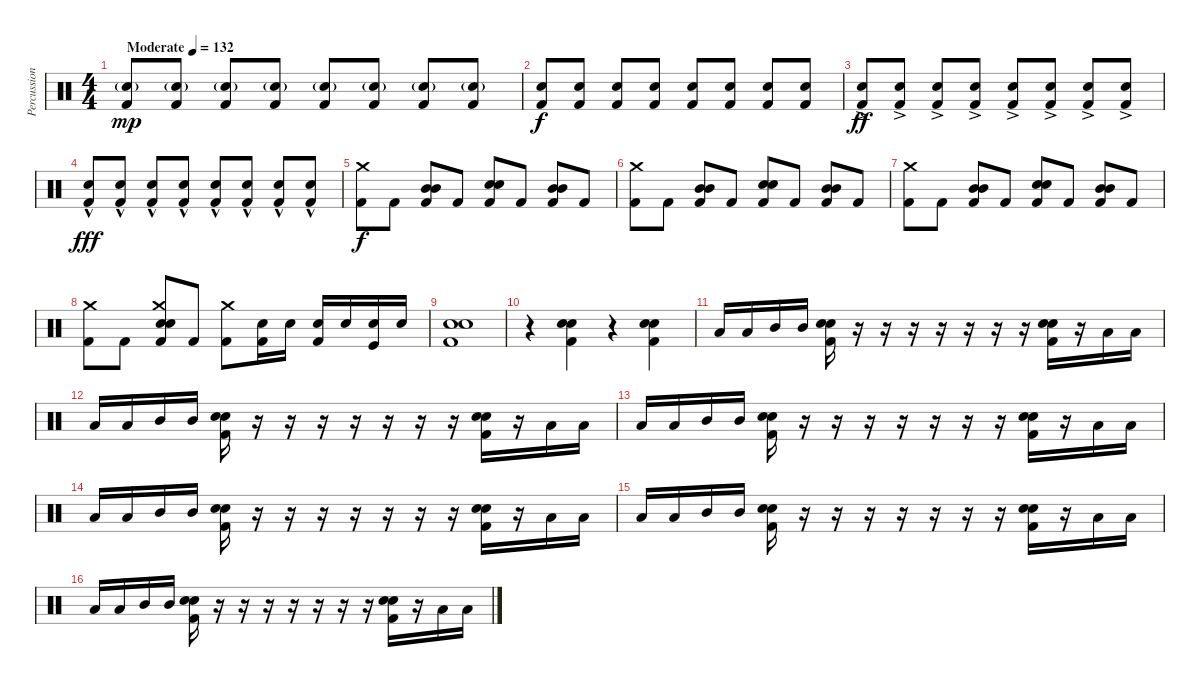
\track ("Percussion" "Percussion") {instrument percussion}
\staff {score}
\articulation defaults
\ts (4 4)
\tempo (132 "Moderate")
\clef neutral
\ks c
("Snare (hit) 2"{g} "Kick (hit) 2").8{dy mp} ("Snare (hit) 2"{g} "Kick (hit) 2").8 ("Snare (hit) 2"{g} "Kick (hit) 2").8 ("Snare (hit) 2"{g} "Kick (hit) 2").8 ("Snare (hit) 2"{g} "Kick (hit) 2").8 ("Snare (hit) 2"{g} "Kick (hit) 2").8 ("Snare (hit) 2"{g} "Kick (hit) 2").8 ("Snare (hit) 2"{g} "Kick (hit) 2").8 |
("Snare (hit) 2" "Kick (hit) 2").8{dy f} ("Snare (hit) 2" "Kick (hit) 2").8 ("Snare (hit) 2" "Kick (hit) 2").8 ("Snare (hit) 2" "Kick (hit) 2").8 ("Snare (hit) 2" "Kick (hit) 2").8 ("Snare (hit) 2" "Kick (hit) 2").8 ("Snare (hit) 2" "Kick (hit) 2").8 ("Snare (hit) 2" "Kick (hit) 2").8 |
("Snare (hit) 2"{ac} "Kick (hit) 2").8{dy ff} ("Snare (hit) 2"{ac} "Kick (hit) 2").8 ("Snare (hit) 2"{ac} "Kick (hit) 2").8 ("Snare (hit) 2"{ac} "Kick (hit) 2").8 ("Snare (hit) 2"{ac} "Kick (hit) 2").8 ("Snare (hit) 2"{ac} "Kick (hit) 2").8 ("Snare (hit) 2"{ac} "Kick (hit) 2").8 ("Snare (hit) 2"{ac} "Kick (hit) 2").8 |
("Snare (hit) 2"{hac} "Kick (hit) 2").8{dy fff} ("Snare (hit) 2"{hac} "Kick (hit) 2").8 ("Snare (hit) 2"{hac} "Kick (hit) 2").8 ("Snare (hit) 2"{hac} "Kick (hit) 2").8 ("Snare (hit) 2"{hac} "Kick (hit) 2").8 ("Snare (hit) 2"{hac} "Kick (hit) 2").8 ("Snare (hit) 2"{hac} "Kick (hit) 2").8 ("Snare (hit) 2"{hac} "Kick (hit) 2").8 |
("Crash medium (hit)" "Kick (hit) 2").8{dy f} "Kick (hit) 2".8 ("Mid Tom (hit)" "Mid Tom (hit)" "Kick (hit) 2").8 "Kick (hit) 2".8 ("Snare (hit) 2" "Snare (hit) 2" "Kick (hit) 2").8 "Kick (hit) 2".8 ("Mid Tom (hit)" "Mid Tom (hit)" "Kick (hit) 2").8 "Kick (hit) 2".8 |
("Crash medium (hit)" "Kick (hit) 2").8 "Kick (hit) 2".8 ("Mid Tom (hit)" "Mid Tom (hit)" "Kick (hit) 2").8 "Kick (hit) 2".8 ("Snare (hit) 2" "Snare (hit) 2" "Kick (hit) 2").8 "Kick (hit) 2".8 ("Mid Tom (hit)" "Mid Tom (hit)" "Kick (hit) 2").8 "Kick (hit) 2".8 |
("Crash medium (hit)" "Kick (hit) 2").8 "Kick (hit) 2".8 ("Mid Tom (hit)" "Mid Tom (hit)" "Kick (hit) 2").8 "Kick (hit) 2".8 ("Snare (hit) 2" "Snare (hit) 2" "Kick (hit) 2").8 "Kick (hit) 2".8 ("Mid Tom (hit)" "Mid Tom (hit)" "Kick (hit) 2").8 "Kick (hit) 2".8 |
("Crash medium (hit)" "Kick (hit) 2").8 "Kick (hit) 2".8 ("Crash medium (hit)" "Electric Snare (hit)" "Electric Snare (hit)" "Kick (hit) 2").8 "Kick (hit) 2".8 ("Crash medium (hit)" "Kick (hit) 2").8 ("Snare (hit) 2" "Kick (hit) 2").16 "Snare (hit) 2".16 ("Snare (hit) 2" "Kick (hit) 2").16 "Snare (hit) 2".16 ("Snare (hit) 2" "Kick (hit)").16 "Snare (hit) 2".16 |
("Snare (hit) 2" "Snare (hit) 2" "Kick (hit) 2").1 |
r.4 ("Electric Snare (hit)" "Snare (hit) 2" "Kick (hit) 2").4 r.4 ("Electric Snare (hit)" "Snare (hit) 2" "Kick (hit) 2").4 |
"Low Tom (hit)".16 "Low Tom (hit)".16 "Mid Tom (hit)".16 "Mid Tom (hit)".16 ("Electric Snare (hit)" "Snare (hit) 2" "Kick (hit) 2").16 r.16 r.16 r.16 r.16 r.16 r.16 r.16 ("Electric Snare (hit)" "Snare (hit) 2" "Kick (hit) 2").16 r.16 "Low Tom (hit)".16 "Low Tom (hit)".16 |
"Low Tom (hit)".16 "Low Tom (hit)".16 "Mid Tom (hit)".16 "Mid Tom (hit)".16 ("Electric Snare (hit)" "Snare (hit) 2" "Kick (hit) 2").16 r.16 r.16 r.16 r.16 r.16 r.16 r.16 ("Electric Snare (hit)" "Snare (hit) 2" "Kick (hit) 2").16 r.16 "Low Tom (hit)".16 "Low Tom (hit)".16 |
"Low Tom (hit)".16 "Low Tom (hit)".16 "Mid Tom (hit)".16 "Mid Tom (hit)".16 ("Electric Snare (hit)" "Snare (hit) 2" "Kick (hit) 2").16 r.16 r.16 r.16 r.16 r.16 r.16 r.16 ("Electric Snare (hit)" "Snare (hit) 2" "Kick (hit) 2").16 r.16 "Low Tom (hit)".16 "Low Tom (hit)".16 |
"Low Tom (hit)".16 "Low Tom (hit)".16 "Mid Tom (hit)".16 "Mid Tom (hit)".16 ("Electric Snare (hit)" "Snare (hit) 2" "Kick (hit) 2").16 r.16 r.16 r.16 r.16 r.16 r.16 r.16 ("Electric Snare (hit)" "Snare (hit) 2" "Kick (hit) 2").16 r.16 "Low Tom (hit)".16 "Low Tom (hit)".16 |
"Low Tom (hit)".16 "Low Tom (hit)".16 "Mid Tom (hit)".16 "Mid Tom (hit)".16 ("Electric Snare (hit)" "Snare (hit) 2" "Kick (hit) 2").16 r.16 r.16 r.16 r.16 r.16 r.16 r.16 ("Electric Snare (hit)" "Snare (hit) 2" "Kick (hit) 2").16 r.16 "Low Tom (hit)".16 "Low Tom (hit)".16 |
"Low Tom (hit)".16 "Low Tom (hit)".16 "Mid Tom (hit)".16 "Mid Tom (hit)".16 ("Electric Snare (hit)" "Snare (hit) 2" "Kick (hit) 2").16 r.16 r.16 r.16 r.16 r.16 r.16 r.16 ("Electric Snare (hit)" "Snare (hit) 2" "Kick (hit) 2").16 r.16 "Low Tom (hit)".16 "Low Tom (hit)".16
